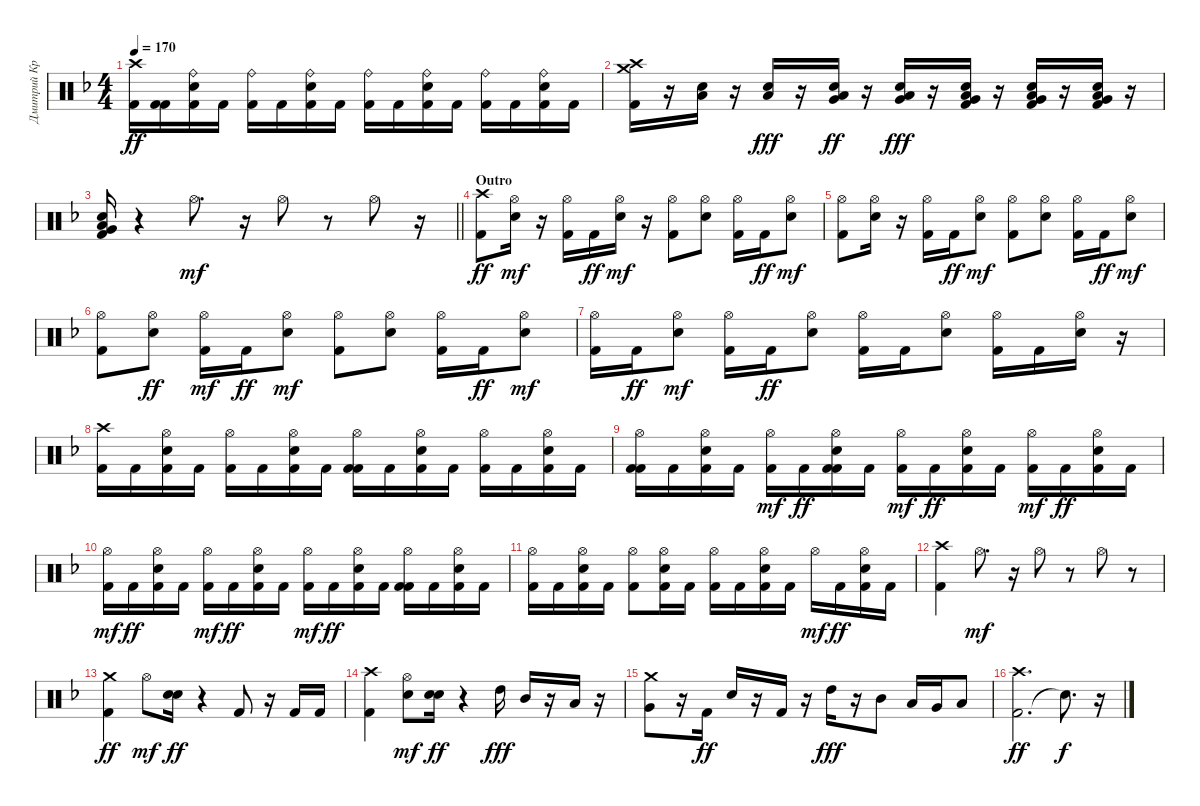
\track ("Дмитрий Кривенков" "Дмитрий Кр") {instrument percussion}
\staff {score}
\articulation defaults
\ts (4 4)
\tempo 170
\clef neutral
\ks f
("Kick (hit) 2" "Crash high (hit)").16{dy ff} ("Kick (hit) 2" "Kick (hit) 2").16 ("Kick (hit) 2" "Electric Snare (hit)" "Ride (bell)").16 "Kick (hit) 2".16 ("Ride (bell)" "Kick (hit) 2").16 "Kick (hit) 2".16 ("Kick (hit) 2" "Electric Snare (hit)" "Ride (bell)").16 "Kick (hit) 2".16 ("Ride (bell)" "Kick (hit) 2").16 "Kick (hit) 2".16 ("Kick (hit) 2" "Electric Snare (hit)" "Ride (bell)").16 "Kick (hit) 2".16 ("Ride (bell)" "Kick (hit) 2").16 "Kick (hit) 2".16 ("Kick (hit) 2" "Electric Snare (hit)" "Ride (bell)").16 "Kick (hit) 2".16 |
("Kick (hit) 2" "Crash high (hit)" "Crash medium (hit)").16 r.16 ("Low Floor Tom (hit)" "Electric Snare (hit)").16 r.16 ("Electric Snare (hit)" "Low Floor Tom (hit)").16{dy fff} r.16 ("Very Low Tom (hit)" "Low Floor Tom (hit)" "Electric Snare (hit)").16{dy ff} r.16 ("Very Low Tom (hit)" "Electric Snare (hit)" "Low Floor Tom (hit)").16{dy fff} r.16 ("Kick (hit) 2" "Very Low Tom (hit)" "Electric Snare (hit)" "Low Floor Tom (hit)").16 r.16 ("Kick (hit) 2" "Electric Snare (hit)" "Very Low Tom (hit)" "Low Floor Tom (hit)").16 r.16 ("Electric Snare (hit)" "Kick (hit) 2" "Low Floor Tom (hit)" "Very Low Tom (hit)").16 r.16 |
\barLineRight lightlight
("Kick (hit) 2" "Electric Snare (hit)" "Very Low Tom (hit)" "Low Floor Tom (hit)").16 r.4 "Hi-Hat (open)".8{d dy mf} r.16 "Hi-Hat (open)".8 r.8 "Hi-Hat (open)".8 r.16 |
\section ("" "Outro")
("Kick (hit) 2" "Crash high (hit)").8{dy ff} ("Electric Snare (hit)" "Hi-Hat (open)").16{dy mf} r.16 ("Kick (hit) 2" "Hi-Hat (open)").16 "Kick (hit) 2".16{dy ff} ("Electric Snare (hit)" "Hi-Hat (open)").16{dy mf} r.16 ("Kick (hit) 2" "Hi-Hat (open)").8 ("Electric Snare (hit)" "Hi-Hat (open)").8 ("Kick (hit) 2" "Hi-Hat (open)").16 "Kick (hit) 2".16{dy ff} ("Electric Snare (hit)" "Hi-Hat (open)").8{dy mf} |
("Kick (hit) 2" "Hi-Hat (open)").8 ("Electric Snare (hit)" "Hi-Hat (open)").16 r.16 ("Kick (hit) 2" "Hi-Hat (open)").16 "Kick (hit) 2".16{dy ff} ("Electric Snare (hit)" "Hi-Hat (open)").8{dy mf} ("Kick (hit) 2" "Hi-Hat (open)").8 ("Electric Snare (hit)" "Hi-Hat (open)").8 ("Kick (hit) 2" "Hi-Hat (open)").16 "Kick (hit) 2".16{dy ff} ("Electric Snare (hit)" "Hi-Hat (open)").8{dy mf} |
("Kick (hit) 2" "Hi-Hat (open)").8 ("Hi-Hat (open)" "Electric Snare (hit)").8{dy ff} ("Kick (hit) 2" "Hi-Hat (open)").16{dy mf} "Kick (hit) 2".16{dy ff} ("Electric Snare (hit)" "Hi-Hat (open)").8{dy mf} ("Kick (hit) 2" "Hi-Hat (open)").8 ("Electric Snare (hit)" "Hi-Hat (open)").8 ("Kick (hit) 2" "Hi-Hat (open)").16 "Kick (hit) 2".16{dy ff} ("Electric Snare (hit)" "Hi-Hat (open)").8{dy mf} |
("Kick (hit) 2" "Hi-Hat (open)").16 "Kick (hit) 2".16{dy ff} ("Electric Snare (hit)" "Hi-Hat (open)").8{dy mf} ("Kick (hit) 2" "Hi-Hat (open)").16 "Kick (hit) 2".16{dy ff} ("Hi-Hat (open)" "Electric Snare (hit)").8 ("Hi-Hat (open)" "Kick (hit) 2").16 "Kick (hit) 2".16 ("Hi-Hat (open)" "Electric Snare (hit)").8 ("Hi-Hat (open)" "Kick (hit) 2").16 "Kick (hit) 2".16 ("Hi-Hat (open)" "Electric Snare (hit)").16 r.16 |
("Crash high (hit)" "Kick (hit) 2").16 "Kick (hit) 2".16 ("Hi-Hat (open)" "Electric Snare (hit)" "Kick (hit) 2").16 "Kick (hit) 2".16 ("Hi-Hat (open)" "Kick (hit) 2").16 "Kick (hit) 2".16 ("Kick (hit) 2" "Hi-Hat (open)" "Electric Snare (hit)").16 "Kick (hit) 2".16 ("Kick (hit) 2" "Hi-Hat (open)" "Kick (hit) 2").16 "Kick (hit) 2".16 ("Kick (hit) 2" "Hi-Hat (open)" "Electric Snare (hit)").16 "Kick (hit) 2".16 ("Hi-Hat (open)" "Kick (hit) 2").16 "Kick (hit) 2".16 ("Hi-Hat (open)" "Electric Snare (hit)" "Kick (hit) 2").16 "Kick (hit) 2".16 |
("Kick (hit) 2" "Hi-Hat (open)" "Kick (hit) 2").16 "Kick (hit) 2".16 ("Hi-Hat (open)" "Electric Snare (hit)" "Kick (hit) 2").16 "Kick (hit) 2".16 ("Kick (hit) 2" "Hi-Hat (open)").16{dy mf} "Kick (hit) 2".16{dy ff} ("Kick (hit) 2" "Hi-Hat (open)" "Electric Snare (hit)" "Kick (hit) 2").16 "Kick (hit) 2".16 ("Kick (hit) 2" "Hi-Hat (open)").16{dy mf} "Kick (hit) 2".16{dy ff} ("Kick (hit) 2" "Hi-Hat (open)" "Electric Snare (hit)").16 "Kick (hit) 2".16 ("Kick (hit) 2" "Hi-Hat (open)").16{dy mf} "Kick (hit) 2".16{dy ff} ("Kick (hit) 2" "Hi-Hat (open)" "Electric Snare (hit)").16 "Kick (hit) 2".16 |
("Kick (hit) 2" "Hi-Hat (open)").16{dy mf} "Kick (hit) 2".16{dy ff} ("Kick (hit) 2" "Hi-Hat (open)" "Electric Snare (hit)").16 "Kick (hit) 2".16 ("Kick (hit) 2" "Hi-Hat (open)").16{dy mf} "Kick (hit) 2".16{dy ff} ("Kick (hit) 2" "Hi-Hat (open)" "Electric Snare (hit)").16 "Kick (hit) 2".16 ("Kick (hit) 2" "Hi-Hat (open)").16{dy mf} "Kick (hit) 2".16{dy ff} ("Kick (hit) 2" "Hi-Hat (open)" "Electric Snare (hit)").16 "Kick (hit) 2".16 ("Kick (hit) 2" "Hi-Hat (open)" "Kick (hit) 2").16 "Kick (hit) 2".16 ("Hi-Hat (open)" "Electric Snare (hit)" "Kick (hit) 2").16 "Kick (hit) 2".16 |
("Hi-Hat (open)" "Kick (hit) 2").16 "Kick (hit) 2".16 ("Hi-Hat (open)" "Electric Snare (hit)" "Kick (hit) 2").16 "Kick (hit) 2".16 ("Hi-Hat (open)" "Kick (hit) 2").8 ("Kick (hit) 2" "Hi-Hat (open)" "Electric Snare (hit)").16 "Kick (hit) 2".16 ("Hi-Hat (open)" "Kick (hit) 2").16 "Kick (hit) 2".16 ("Hi-Hat (open)" "Electric Snare (hit)" "Kick (hit) 2").16 "Kick (hit) 2".16 "Hi-Hat (open)".16{dy mf} "Kick (hit) 2".16{dy ff} ("Hi-Hat (open)" "Electric Snare (hit)" "Kick (hit) 2").16 "Kick (hit) 2".16 |
("Crash high (hit)" "Kick (hit) 2").4 "Hi-Hat (open)".8{d dy mf} r.16 "Hi-Hat (open)".8 r.8 "Hi-Hat (open)".8 r.8 |
("Kick (hit) 2" "Crash medium (hit)").4{dy ff} "Hi-Hat (open)".8{dy mf} ("Electric Snare (hit)" "Electric Snare (hit)").16{dy ff} r.4 "Kick (hit) 2".8 r.16 "Kick (hit) 2".16 "Kick (hit) 2".16 |
("Kick (hit) 2" "Crash high (hit)").4 ("Hi-Hat (open)" "Electric Snare (hit)").8{dy mf} ("Electric Snare (hit)" "Electric Snare (hit)").16{dy ff} r.4 "High Tom (hit)".16{dy fff} "Mid Tom (hit)".16 r.16 "Low Tom (hit)".16 r.16 |
("Very Low Tom (hit)" "Crash medium (hit)").8 r.16 "Kick (hit) 2".16{dy ff} "Electric Snare (hit)".16 r.16 "Kick (hit) 2".16 r.16 "High Tom (hit)".16{dy fff} r.16 "Mid Tom (hit)".8 "Low Tom (hit)".16 "Very Low Tom (hit)".16 "Low Floor Tom (hit)".8 |
("Kick (hit) 2" "Crash high (hit)").2{d dy ff} "Snare (hit)"{t}.8{d dy f} r.16
